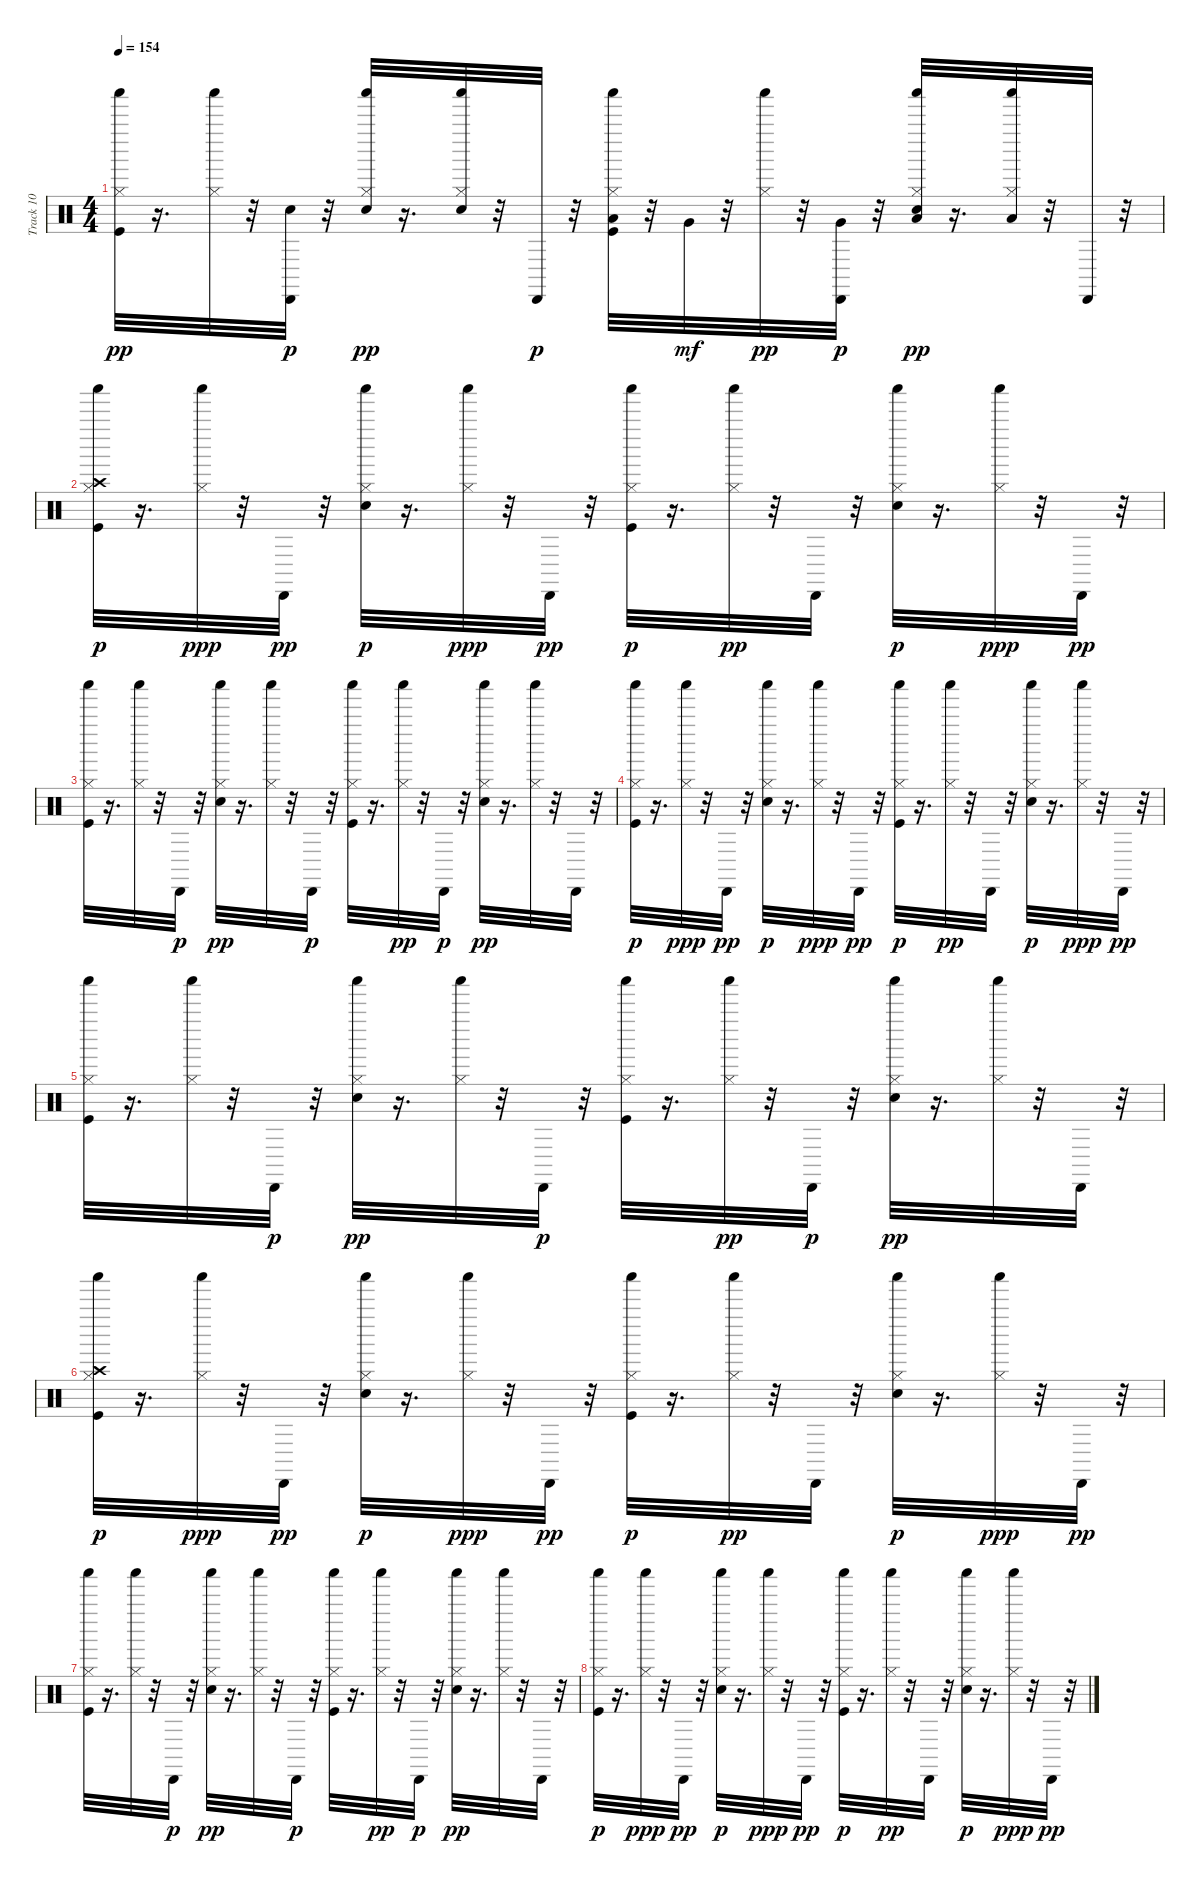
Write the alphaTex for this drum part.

\track ("Track 10" "Track 10") {instrument percussion}
\staff {score}
\articulation defaults
\ts (4 4)
\tempo 154
\clef neutral
\ks c
("Kick (hit)" "Hi-Hat (closed)" "Shaker (hit)").32{dy pp} r.16{d} ("Hi-Hat (closed)" "Shaker (hit)").32 r.32 ("Electric Snare (hit)" "Cabasa (hit)").32{dy p} r.32 ("Electric Snare (hit)" "Hi-Hat (closed)" "Shaker (hit)").32{dy pp} r.16{d} ("Electric Snare (hit)" "Hi-Hat (closed)" "Shaker (hit)").32 r.32 "Cabasa (hit)".32{dy p} r.32 ("Kick (hit)" "Hi-Hat (closed)" "Low Tom (hit)" "Shaker (hit)").32 r.32 "Very Low Tom (hit)".32{dy mf} r.32 ("Hi-Hat (closed)" "Shaker (hit)").32{dy pp} r.32 ("Very Low Tom (hit)" "Cabasa (hit)").32{dy p} r.32 ("Electric Snare (hit)" "Hi-Hat (closed)" "Low Tom (hit)" "Shaker (hit)").32{dy pp} r.16{d} ("Low Floor Tom (hit)" "Hi-Hat (closed)" "Shaker (hit)").32 r.32 "Cabasa (hit)".32 r.32 |
("Kick (hit)" "Hi-Hat (closed)" "Crash high (hit)" "Shaker (hit)").32{dy p} r.16{d} ("Hi-Hat (closed)" "Shaker (hit)").32{dy ppp} r.32 "Cabasa (hit)".32{dy pp} r.32 ("Electric Snare (hit)" "Hi-Hat (closed)" "Shaker (hit)").32{dy p} r.16{d} ("Hi-Hat (closed)" "Shaker (hit)").32{dy ppp} r.32 "Cabasa (hit)".32{dy pp} r.32 ("Kick (hit)" "Hi-Hat (closed)" "Shaker (hit)").32{dy p} r.16{d} ("Hi-Hat (closed)" "Shaker (hit)").32{dy pp} r.32 "Cabasa (hit)".32 r.32 ("Electric Snare (hit)" "Hi-Hat (closed)" "Shaker (hit)").32{dy p} r.16{d} ("Hi-Hat (closed)" "Shaker (hit)").32{dy ppp} r.32 "Cabasa (hit)".32{dy pp} r.32 |
("Kick (hit)" "Hi-Hat (closed)" "Shaker (hit)").32 r.16{d} ("Hi-Hat (closed)" "Shaker (hit)").32 r.32 "Cabasa (hit)".32{dy p} r.32 ("Electric Snare (hit)" "Hi-Hat (closed)" "Shaker (hit)").32{dy pp} r.16{d} ("Hi-Hat (closed)" "Shaker (hit)").32 r.32 "Cabasa (hit)".32{dy p} r.32 ("Kick (hit)" "Hi-Hat (closed)" "Shaker (hit)").32 r.16{d} ("Hi-Hat (closed)" "Shaker (hit)").32{dy pp} r.32 "Cabasa (hit)".32{dy p} r.32 ("Electric Snare (hit)" "Hi-Hat (closed)" "Shaker (hit)").32{dy pp} r.16{d} ("Hi-Hat (closed)" "Shaker (hit)").32 r.32 "Cabasa (hit)".32 r.32 |
("Kick (hit)" "Hi-Hat (closed)" "Shaker (hit)").32{dy p} r.16{d} ("Hi-Hat (closed)" "Shaker (hit)").32{dy ppp} r.32 "Cabasa (hit)".32{dy pp} r.32 ("Electric Snare (hit)" "Hi-Hat (closed)" "Shaker (hit)").32{dy p} r.16{d} ("Hi-Hat (closed)" "Shaker (hit)").32{dy ppp} r.32 "Cabasa (hit)".32{dy pp} r.32 ("Kick (hit)" "Hi-Hat (closed)" "Shaker (hit)").32{dy p} r.16{d} ("Hi-Hat (closed)" "Shaker (hit)").32{dy pp} r.32 "Cabasa (hit)".32 r.32 ("Electric Snare (hit)" "Hi-Hat (closed)" "Shaker (hit)").32{dy p} r.16{d} ("Hi-Hat (closed)" "Shaker (hit)").32{dy ppp} r.32 "Cabasa (hit)".32{dy pp} r.32 |
("Kick (hit)" "Hi-Hat (closed)" "Shaker (hit)").32 r.16{d} ("Hi-Hat (closed)" "Shaker (hit)").32 r.32 "Cabasa (hit)".32{dy p} r.32 ("Electric Snare (hit)" "Hi-Hat (closed)" "Shaker (hit)").32{dy pp} r.16{d} ("Hi-Hat (closed)" "Shaker (hit)").32 r.32 "Cabasa (hit)".32{dy p} r.32 ("Kick (hit)" "Hi-Hat (closed)" "Shaker (hit)").32 r.16{d} ("Hi-Hat (closed)" "Shaker (hit)").32{dy pp} r.32 "Cabasa (hit)".32{dy p} r.32 ("Electric Snare (hit)" "Hi-Hat (closed)" "Shaker (hit)").32{dy pp} r.16{d} ("Hi-Hat (closed)" "Shaker (hit)").32 r.32 "Cabasa (hit)".32 r.32 |
("Kick (hit)" "Hi-Hat (closed)" "Crash high (hit)" "Shaker (hit)").32{dy p} r.16{d} ("Hi-Hat (closed)" "Shaker (hit)").32{dy ppp} r.32 "Cabasa (hit)".32{dy pp} r.32 ("Electric Snare (hit)" "Hi-Hat (closed)" "Shaker (hit)").32{dy p} r.16{d} ("Hi-Hat (closed)" "Shaker (hit)").32{dy ppp} r.32 "Cabasa (hit)".32{dy pp} r.32 ("Kick (hit)" "Hi-Hat (closed)" "Shaker (hit)").32{dy p} r.16{d} ("Hi-Hat (closed)" "Shaker (hit)").32{dy pp} r.32 "Cabasa (hit)".32 r.32 ("Electric Snare (hit)" "Hi-Hat (closed)" "Shaker (hit)").32{dy p} r.16{d} ("Hi-Hat (closed)" "Shaker (hit)").32{dy ppp} r.32 "Cabasa (hit)".32{dy pp} r.32 |
("Kick (hit)" "Hi-Hat (closed)" "Shaker (hit)").32 r.16{d} ("Hi-Hat (closed)" "Shaker (hit)").32 r.32 "Cabasa (hit)".32{dy p} r.32 ("Electric Snare (hit)" "Hi-Hat (closed)" "Shaker (hit)").32{dy pp} r.16{d} ("Hi-Hat (closed)" "Shaker (hit)").32 r.32 "Cabasa (hit)".32{dy p} r.32 ("Kick (hit)" "Hi-Hat (closed)" "Shaker (hit)").32 r.16{d} ("Hi-Hat (closed)" "Shaker (hit)").32{dy pp} r.32 "Cabasa (hit)".32{dy p} r.32 ("Electric Snare (hit)" "Hi-Hat (closed)" "Shaker (hit)").32{dy pp} r.16{d} ("Hi-Hat (closed)" "Shaker (hit)").32 r.32 "Cabasa (hit)".32 r.32 |
("Kick (hit)" "Hi-Hat (closed)" "Shaker (hit)").32{dy p} r.16{d} ("Hi-Hat (closed)" "Shaker (hit)").32{dy ppp} r.32 "Cabasa (hit)".32{dy pp} r.32 ("Electric Snare (hit)" "Hi-Hat (closed)" "Shaker (hit)").32{dy p} r.16{d} ("Hi-Hat (closed)" "Shaker (hit)").32{dy ppp} r.32 "Cabasa (hit)".32{dy pp} r.32 ("Kick (hit)" "Hi-Hat (closed)" "Shaker (hit)").32{dy p} r.16{d} ("Hi-Hat (closed)" "Shaker (hit)").32{dy pp} r.32 "Cabasa (hit)".32 r.32 ("Electric Snare (hit)" "Hi-Hat (closed)" "Shaker (hit)").32{dy p} r.16{d} ("Hi-Hat (closed)" "Shaker (hit)").32{dy ppp} r.32 "Cabasa (hit)".32{dy pp} r.32
